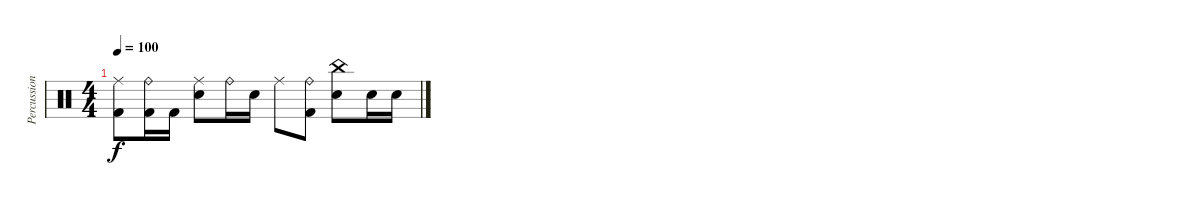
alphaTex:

\track ("Percussion" "Percussion") {instrument percussion}
\staff {score}
\articulation defaults
\ts (4 4)
\tempo 100
\clef neutral
\ks c
("Ride (middle)" "Kick (hit) 2").8{dy f} ("Ride (bell)" "Kick (hit) 2").16 "Kick (hit) 2".16 ("Ride (middle)" "Snare (hit) 2").8 "Ride (bell)".16 "Snare (hit) 2".16 "Ride (middle)".8 ("Ride (bell)" "Kick (hit) 2").8 ("China (hit)" "Snare (hit) 2").8 "Snare (hit) 2".16 "Snare (hit) 2".16
